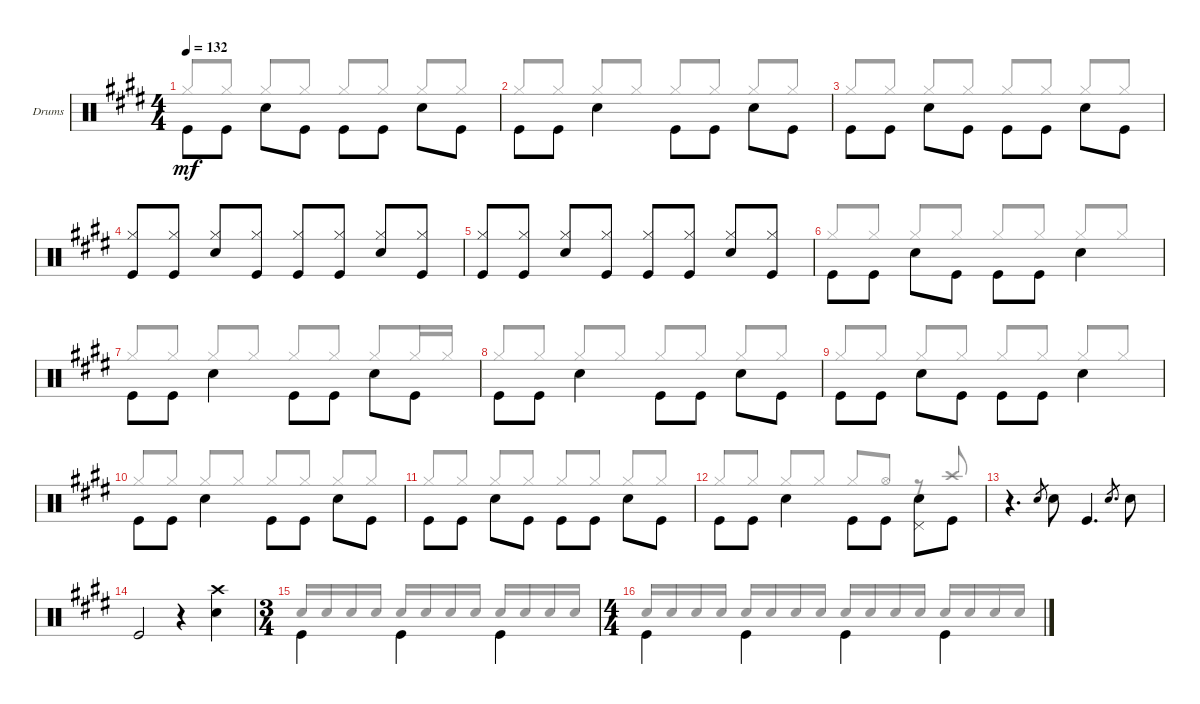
\defaultSystemsLayout 4
\bracketExtendMode groupsimilarinstruments
\firstSystemTrackNameOrientation horizontal
\otherSystemsTrackNameOrientation horizontal
\track ("PETER CRISS" "Drums") {solo instrument percussion}
\staff {score}
\articulation defaults
\voice
\ts (4 4)
\tempo 132
\clef neutral
\ks e "Kick (hit)".8{dy mf beam invert} "Kick (hit)".8 "Snare (hit) 2".8{beam invert} "Kick (hit)".8 "Kick (hit)".8{beam invert} "Kick (hit)".8 "Snare (hit) 2".8{beam invert} "Kick (hit)".8
|
"Kick (hit)".8{beam invert} "Kick (hit)".8 "Snare (hit) 2".4{beam invert} "Kick (hit)".8{beam invert} "Kick (hit)".8 "Snare (hit) 2".8{beam invert} "Kick (hit)".8 |
"Kick (hit)".8{beam invert} "Kick (hit)".8 "Snare (hit) 2".8{beam invert} "Kick (hit)".8 "Kick (hit)".8{beam invert} "Kick (hit)".8 "Snare (hit) 2".8{beam invert} "Kick (hit)".8 |
("Kick (hit)" "Hi-Hat (closed)").8{beam invert} ("Kick (hit)" "Hi-Hat (closed)").8 ("Snare (hit) 2" "Hi-Hat (closed)").8{beam invert} ("Kick (hit)" "Hi-Hat (closed)").8 ("Kick (hit)" "Hi-Hat (closed)").8{beam invert} ("Kick (hit)" "Hi-Hat (closed)").8 ("Snare (hit) 2" "Hi-Hat (closed)").8{beam invert} ("Kick (hit)" "Hi-Hat (closed)").8 |
("Kick (hit)" "Hi-Hat (closed)").8{beam invert} ("Kick (hit)" "Hi-Hat (closed)").8 ("Snare (hit) 2" "Hi-Hat (closed)").8{beam invert} ("Kick (hit)" "Hi-Hat (closed)").8 ("Kick (hit)" "Hi-Hat (closed)").8{beam invert} ("Kick (hit)" "Hi-Hat (closed)").8 ("Snare (hit) 2" "Hi-Hat (closed)").8{beam invert} ("Kick (hit)" "Hi-Hat (closed)").8 |
"Kick (hit)".8{beam invert} "Kick (hit)".8 "Snare (hit) 2".8{beam invert} "Kick (hit)".8 "Kick (hit)".8{beam invert} "Kick (hit)".8 "Snare (hit) 2".4{beam invert} |
"Kick (hit)".8{beam invert} "Kick (hit)".8 "Snare (hit) 2".4{beam invert} "Kick (hit)".8{beam invert} "Kick (hit)".8 "Snare (hit) 2".8{beam invert} "Kick (hit)".8 |
"Kick (hit)".8{beam invert} "Kick (hit)".8 "Snare (hit) 2".4{beam invert} "Kick (hit)".8 "Kick (hit)".8{beam invert} "Snare (hit) 2".8{beam invert} "Kick (hit)".8 |
"Kick (hit)".8{beam invert} "Kick (hit)".8 "Snare (hit) 2".8{beam invert} "Kick (hit)".8 "Kick (hit)".8{beam invert} "Kick (hit)".8 "Snare (hit) 2".4{beam invert} |
"Kick (hit)".8{beam invert} "Kick (hit)".8 "Snare (hit) 2".4{beam invert} "Kick (hit)".8{beam invert} "Kick (hit)".8 "Snare (hit) 2".8{beam invert} "Kick (hit)".8 |
"Kick (hit)".8{beam invert} "Kick (hit)".8 "Snare (hit) 2".8{beam invert} "Kick (hit)".8 "Kick (hit)".8 "Kick (hit)".8{beam invert} "Snare (hit) 2".8{beam invert} "Kick (hit)".8 |
"Kick (hit)".8{beam invert} "Kick (hit)".8 "Snare (hit) 2".4{beam invert} "Kick (hit)".8{beam invert} "Kick (hit)".8 ("Snare (hit) 2" "Pedal Hi-Hat (hit)").8{beam invert} "Kick (hit)".8 |
r.4{d} "Snare (hit) 2".8{gr} "Snare (hit) 2".8 "Kick (hit)".4{d} "Snare (hit) 2".8{d gr} "Snare (hit) 2".8 |
"Kick (hit)".2 r.4 ("Snare (hit) 2" "Crash high (hit)").4 |
\ts (3 4)
"Kick (hit)".4{beam invert} "Kick (hit)".4{beam invert} "Kick (hit)".4{beam invert} |
\ts (4 4)
"Kick (hit)".4{beam invert} "Kick (hit)".4{beam invert} "Kick (hit)".4{beam invert} "Kick (hit)".4{beam invert}
\voice
\clef neutral
\ottava regular
\simile none
\ks e "Hi-Hat (closed)".8{dy mf beam invert} "Hi-Hat (closed)".8 "Hi-Hat (closed)".8{beam invert} "Hi-Hat (closed)".8 "Hi-Hat (closed)".8{beam invert} "Hi-Hat (closed)".8 "Hi-Hat (closed)".8{beam invert} "Hi-Hat (closed)".8
|
"Hi-Hat (closed)".8{beam invert} "Hi-Hat (closed)".8 "Hi-Hat (closed)".8{beam invert} "Hi-Hat (closed)".8 "Hi-Hat (closed)".8{beam invert} "Hi-Hat (closed)".8 "Hi-Hat (closed)".8{beam invert} "Hi-Hat (closed)".8 |
"Hi-Hat (closed)".8{beam invert} "Hi-Hat (closed)".8 "Hi-Hat (closed)".8{beam invert} "Hi-Hat (closed)".8 "Hi-Hat (closed)".8{beam invert} "Hi-Hat (closed)".8 "Hi-Hat (closed)".8{beam invert} "Hi-Hat (closed)".8 |
|
|
"Hi-Hat (closed)".8{beam invert} "Hi-Hat (closed)".8 "Hi-Hat (closed)".8{beam invert} "Hi-Hat (closed)".8 "Hi-Hat (closed)".8{beam invert} "Hi-Hat (closed)".8 "Hi-Hat (closed)".8{beam invert} "Hi-Hat (closed)".8 |
"Hi-Hat (closed)".8{beam invert} "Hi-Hat (closed)".8 "Hi-Hat (closed)".8{beam invert} "Hi-Hat (closed)".8 "Hi-Hat (closed)".8{beam invert} "Hi-Hat (closed)".8 "Hi-Hat (closed)".8{beam invert} "Hi-Hat (closed)".16 "Hi-Hat (closed)".16 |
"Hi-Hat (closed)".8{beam invert} "Hi-Hat (closed)".8 "Hi-Hat (closed)".8{beam invert} "Hi-Hat (closed)".8 "Hi-Hat (closed)".8{beam invert} "Hi-Hat (closed)".8 "Hi-Hat (closed)".8{beam invert} "Hi-Hat (closed)".8 |
"Hi-Hat (closed)".8{beam invert} "Hi-Hat (closed)".8 "Hi-Hat (closed)".8{beam invert} "Hi-Hat (closed)".8 "Hi-Hat (closed)".8{beam invert} "Hi-Hat (closed)".8 "Hi-Hat (closed)".8{beam invert} "Hi-Hat (closed)".8 |
"Hi-Hat (closed)".8{beam invert} "Hi-Hat (closed)".8 "Hi-Hat (closed)".8{beam invert} "Hi-Hat (closed)".8 "Hi-Hat (closed)".8{beam invert} "Hi-Hat (closed)".8 "Hi-Hat (closed)".8{beam invert} "Hi-Hat (closed)".8 |
"Hi-Hat (closed)".8{beam invert} "Hi-Hat (closed)".8 "Hi-Hat (closed)".8{beam invert} "Hi-Hat (closed)".8 "Hi-Hat (closed)".8{beam invert} "Hi-Hat (closed)".8 "Hi-Hat (closed)".8{beam invert} "Hi-Hat (closed)".8 |
"Hi-Hat (closed)".8{beam invert} "Hi-Hat (closed)".8 "Hi-Hat (closed)".8{beam invert} "Hi-Hat (closed)".8 "Hi-Hat (closed)".8{beam invert} "Hi-Hat (open)".8 r.8{beam invert} "Crash high (hit)".8{beam invert} |
|
|
"Snare (hit) 2".16{beam invert} "Snare (hit) 2".16 "Snare (hit) 2".16 "Snare (hit) 2".16 "Snare (hit) 2".16{beam invert} "Snare (hit) 2".16 "Snare (hit) 2".16 "Snare (hit) 2".16 "Snare (hit) 2".16{beam invert} "Snare (hit) 2".16 "Snare (hit) 2".16 "Snare (hit) 2".16 |
"Snare (hit) 2".16{beam invert} "Snare (hit) 2".16 "Snare (hit) 2".16 "Snare (hit) 2".16 "Snare (hit) 2".16{beam invert} "Snare (hit) 2".16 "Snare (hit) 2".16 "Snare (hit) 2".16 "Snare (hit) 2".16{beam invert} "Snare (hit) 2".16 "Snare (hit) 2".16 "Snare (hit) 2".16 "Snare (hit) 2".16{beam invert} "Snare (hit) 2".16 "Snare (hit) 2".16 "Snare (hit) 2".16
